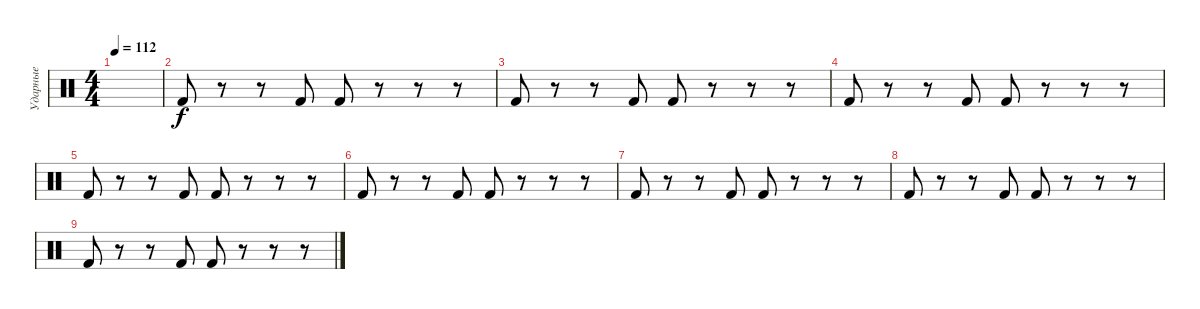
\track ("Ударные" "Ударные") {instrument percussion}
\staff {score}
\articulation defaults
\ts (4 4)
\tempo 112
\clef neutral
\ks c
|
"Kick (hit) 2".8 r.8 r.8 "Kick (hit) 2".8 "Kick (hit) 2".8 r.8 r.8 r.8 |
"Kick (hit) 2".8 r.8 r.8 "Kick (hit) 2".8 "Kick (hit) 2".8 r.8 r.8 r.8 |
"Kick (hit) 2".8 r.8 r.8 "Kick (hit) 2".8 "Kick (hit) 2".8 r.8 r.8 r.8 |
"Kick (hit) 2".8 r.8 r.8 "Kick (hit) 2".8 "Kick (hit) 2".8 r.8 r.8 r.8 |
"Kick (hit) 2".8 r.8 r.8 "Kick (hit) 2".8 "Kick (hit) 2".8 r.8 r.8 r.8 |
"Kick (hit) 2".8 r.8 r.8 "Kick (hit) 2".8 "Kick (hit) 2".8 r.8 r.8 r.8 |
"Kick (hit) 2".8 r.8 r.8 "Kick (hit) 2".8 "Kick (hit) 2".8 r.8 r.8 r.8 |
"Kick (hit) 2".8 r.8 r.8 "Kick (hit) 2".8 "Kick (hit) 2".8 r.8 r.8 r.8
